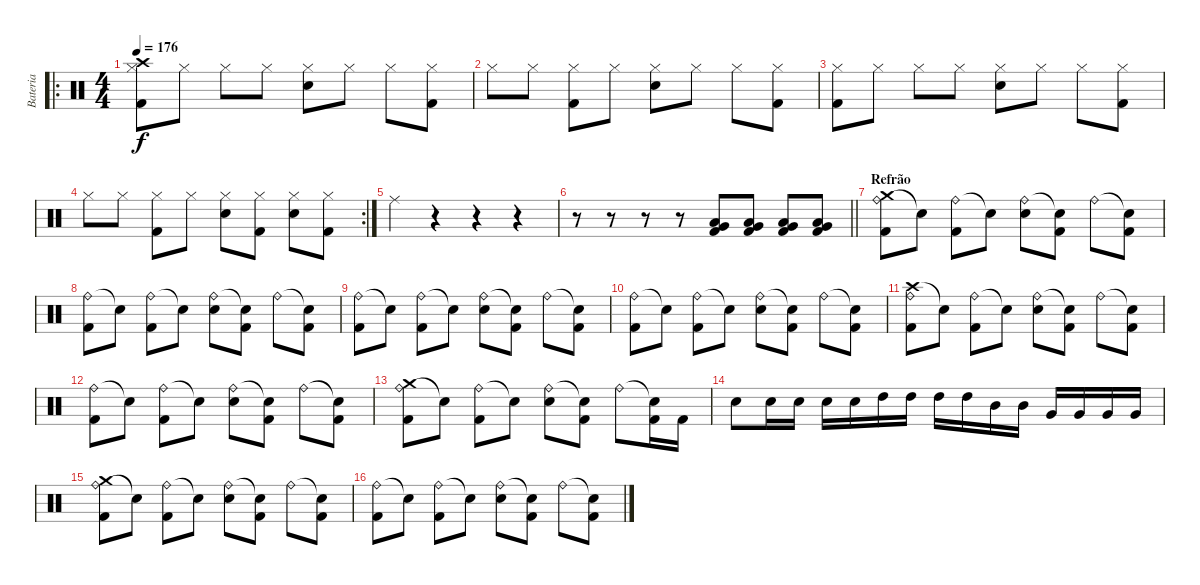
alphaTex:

\track ("Bateria" "Bateria") {instrument percussion}
\staff {score}
\articulation defaults
\ro
\ts (4 4)
\tempo 176
\clef neutral
\ks c
("Crash high (hit)" "Hi-Hat (closed)" "Kick (hit) 2").8{dy f} "Hi-Hat (closed)".8 "Hi-Hat (closed)".8 "Hi-Hat (closed)".8 ("Hi-Hat (closed)" "Electric Snare (hit)").8 "Hi-Hat (closed)".8 "Hi-Hat (closed)".8 ("Hi-Hat (closed)" "Kick (hit) 2").8 |
"Hi-Hat (closed)".8 "Hi-Hat (closed)".8 ("Hi-Hat (closed)" "Kick (hit) 2").8 "Hi-Hat (closed)".8 ("Hi-Hat (closed)" "Electric Snare (hit)").8 "Hi-Hat (closed)".8 "Hi-Hat (closed)".8 ("Hi-Hat (closed)" "Kick (hit) 2").8 |
("Hi-Hat (closed)" "Kick (hit) 2").8 "Hi-Hat (closed)".8 "Hi-Hat (closed)".8 "Hi-Hat (closed)".8 ("Hi-Hat (closed)" "Electric Snare (hit)").8 "Hi-Hat (closed)".8 "Hi-Hat (closed)".8 ("Hi-Hat (closed)" "Kick (hit) 2").8 |
\rc 2 "Hi-Hat (closed)".8 "Hi-Hat (closed)".8
("Hi-Hat (closed)" "Kick (hit) 2").8 "Hi-Hat (closed)".8 ("Hi-Hat (closed)" "Electric Snare (hit)").8 ("Hi-Hat (closed)" "Kick (hit) 2").8 ("Hi-Hat (closed)" "Electric Snare (hit)").8 ("Hi-Hat (closed)" "Kick (hit) 2").8 |
"Ride (middle)".4 r.4 r.4 r.4 |
\barLineRight lightlight
r.8 r.8 r.8 r.8 ("Low Floor Tom (hit)" "Very Low Tom (hit)" "Kick (hit) 2").8 ("Low Floor Tom (hit)" "Very Low Tom (hit)" "Kick (hit) 2").8 ("Low Floor Tom (hit)" "Very Low Tom (hit)" "Kick (hit) 2").8 ("Low Floor Tom (hit)" "Very Low Tom (hit)" "Kick (hit) 2").8 |
\section ("" "Refrão")
("Crash medium (hit)" "Ride (bell)" "Kick (hit) 2").8 "Snare (hit)"{t}.8 ("Ride (bell)" "Kick (hit) 2").8 "Snare (hit)"{t}.8 ("Ride (bell)" "Electric Snare (hit)").8 ("Snare (hit)"{t} "Kick (hit) 2").8 "Ride (bell)".8 ("Snare (hit)"{t} "Kick (hit) 2").8 |
("Ride (bell)" "Kick (hit) 2").8 "Snare (hit)"{t}.8 ("Ride (bell)" "Kick (hit) 2").8 "Snare (hit)"{t}.8 ("Ride (bell)" "Electric Snare (hit)").8 ("Snare (hit)"{t} "Kick (hit) 2").8 "Ride (bell)".8 ("Snare (hit)"{t} "Kick (hit) 2").8 |
("Ride (bell)" "Kick (hit) 2").8 "Snare (hit)"{t}.8 ("Ride (bell)" "Kick (hit) 2").8 "Snare (hit)"{t}.8 ("Ride (bell)" "Electric Snare (hit)").8 ("Snare (hit)"{t} "Kick (hit) 2").8 "Ride (bell)".8 ("Snare (hit)"{t} "Kick (hit) 2").8 |
("Ride (bell)" "Kick (hit) 2").8 "Snare (hit)"{t}.8 ("Ride (bell)" "Kick (hit) 2").8 "Snare (hit)"{t}.8 ("Ride (bell)" "Electric Snare (hit)").8 ("Snare (hit)"{t} "Kick (hit) 2").8 "Ride (bell)".8 ("Snare (hit)"{t} "Kick (hit) 2").8 |
("Crash high (hit)" "Ride (bell)" "Kick (hit) 2").8 "Snare (hit)"{t}.8 ("Ride (bell)" "Kick (hit) 2").8 "Snare (hit)"{t}.8 ("Ride (bell)" "Electric Snare (hit)").8 ("Snare (hit)"{t} "Kick (hit) 2").8 "Ride (bell)".8 ("Snare (hit)"{t} "Kick (hit) 2").8 |
("Ride (bell)" "Kick (hit) 2").8 "Snare (hit)"{t}.8 ("Ride (bell)" "Kick (hit) 2").8 "Snare (hit)"{t}.8 ("Ride (bell)" "Electric Snare (hit)").8 ("Snare (hit)"{t} "Kick (hit) 2").8 "Ride (bell)".8 ("Snare (hit)"{t} "Kick (hit) 2").8 |
("Crash medium (hit)" "Ride (bell)" "Kick (hit) 2").8 "Snare (hit)"{t}.8 ("Ride (bell)" "Kick (hit) 2").8 "Snare (hit)"{t}.8 ("Ride (bell)" "Electric Snare (hit)").8 ("Snare (hit)"{t} "Kick (hit) 2").8 "Ride (bell)".8 ("Snare (hit)"{t} "Kick (hit) 2").16 "Kick (hit) 2".16 |
"Electric Snare (hit)".8 "Electric Snare (hit)".16 "Electric Snare (hit)".16 "Electric Snare (hit)".16 "Electric Snare (hit)".16 "High Tom (hit)".16 "High Tom (hit)".16 "High Tom (hit)".16 "High Tom (hit)".16 "Mid Tom (hit)".16 "Mid Tom (hit)".16 "Very Low Tom (hit)".16 "Very Low Tom (hit)".16 "Very Low Tom (hit)".16 "Very Low Tom (hit)".16 |
("Crash medium (hit)" "Ride (bell)" "Kick (hit) 2").8 "Snare (hit)"{t}.8 ("Ride (bell)" "Kick (hit) 2").8 "Snare (hit)"{t}.8 ("Ride (bell)" "Electric Snare (hit)").8 ("Snare (hit)"{t} "Kick (hit) 2").8 "Ride (bell)".8 ("Snare (hit)"{t} "Kick (hit) 2").8 |
("Ride (bell)" "Kick (hit) 2").8 "Snare (hit)"{t}.8 ("Ride (bell)" "Kick (hit) 2").8 "Snare (hit)"{t}.8 ("Ride (bell)" "Electric Snare (hit)").8 ("Snare (hit)"{t} "Kick (hit) 2").8 "Ride (bell)".8 ("Snare (hit)"{t} "Kick (hit) 2").8
